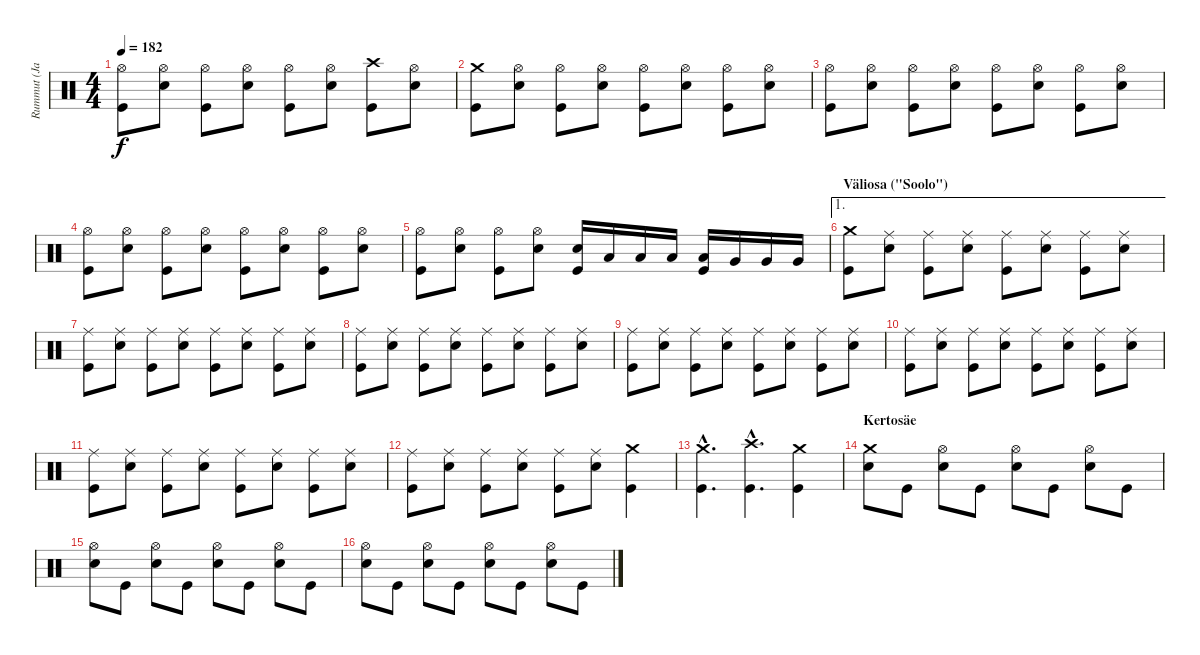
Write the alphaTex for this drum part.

\track ("Rummut (Janne)" "Rummut (Ja") {instrument percussion}
\staff {score}
\articulation defaults
\ts (4 4)
\tempo 182
\clef neutral
\ks c
("Hi-Hat (open)" "Kick (hit)").8{dy f} ("Hi-Hat (open)" "Snare (hit) 2").8 ("Hi-Hat (open)" "Kick (hit)").8 ("Hi-Hat (open)" "Snare (hit) 2").8 ("Hi-Hat (open)" "Kick (hit)").8 ("Hi-Hat (open)" "Snare (hit) 2").8 ("Crash high (hit)" "Kick (hit)").8 ("Hi-Hat (open)" "Snare (hit) 2").8 |
("Crash medium (hit)" "Kick (hit)").8 ("Hi-Hat (open)" "Snare (hit) 2").8 ("Hi-Hat (open)" "Kick (hit)").8 ("Hi-Hat (open)" "Snare (hit) 2").8 ("Hi-Hat (open)" "Kick (hit)").8 ("Hi-Hat (open)" "Snare (hit) 2").8 ("Hi-Hat (open)" "Kick (hit)").8 ("Hi-Hat (open)" "Snare (hit) 2").8 |
("Hi-Hat (open)" "Kick (hit)").8 ("Hi-Hat (open)" "Snare (hit) 2").8 ("Hi-Hat (open)" "Kick (hit)").8 ("Hi-Hat (open)" "Snare (hit) 2").8 ("Hi-Hat (open)" "Kick (hit)").8 ("Hi-Hat (open)" "Snare (hit) 2").8 ("Hi-Hat (open)" "Kick (hit)").8 ("Hi-Hat (open)" "Snare (hit) 2").8 |
("Hi-Hat (open)" "Kick (hit)").8 ("Hi-Hat (open)" "Snare (hit) 2").8 ("Hi-Hat (open)" "Kick (hit)").8 ("Hi-Hat (open)" "Snare (hit) 2").8 ("Hi-Hat (open)" "Kick (hit)").8 ("Hi-Hat (open)" "Snare (hit) 2").8 ("Hi-Hat (open)" "Kick (hit)").8 ("Hi-Hat (open)" "Snare (hit) 2").8 |
("Hi-Hat (open)" "Kick (hit)").8 ("Hi-Hat (open)" "Snare (hit) 2").8 ("Hi-Hat (open)" "Kick (hit)").8 ("Hi-Hat (open)" "Snare (hit) 2").8 ("Snare (hit) 2" "Kick (hit)").16 "Low Tom (hit)".16 "Low Tom (hit)".16 "Low Tom (hit)".16 ("Low Tom (hit)" "Kick (hit)").16 "Very Low Tom (hit)".16 "Very Low Tom (hit)".16 "Very Low Tom (hit)".16 |
\ae 1
\section ("" "Väliosa (\"Soolo\")")
("Crash medium (hit)" "Kick (hit)").8 ("Ride (middle)" "Snare (hit) 2").8 ("Ride (middle)" "Kick (hit)").8 ("Ride (middle)" "Snare (hit) 2").8 ("Ride (middle)" "Kick (hit)").8 ("Ride (middle)" "Snare (hit) 2").8 ("Ride (middle)" "Kick (hit)").8 ("Ride (middle)" "Snare (hit) 2").8 |
("Ride (middle)" "Kick (hit)").8 ("Ride (middle)" "Snare (hit) 2").8 ("Ride (middle)" "Kick (hit)").8 ("Ride (middle)" "Snare (hit) 2").8 ("Ride (middle)" "Kick (hit)").8 ("Ride (middle)" "Snare (hit) 2").8 ("Ride (middle)" "Kick (hit)").8 ("Ride (middle)" "Snare (hit) 2").8 |
("Ride (middle)" "Kick (hit)").8 ("Ride (middle)" "Snare (hit) 2").8 ("Ride (middle)" "Kick (hit)").8 ("Ride (middle)" "Snare (hit) 2").8 ("Ride (middle)" "Kick (hit)").8 ("Ride (middle)" "Snare (hit) 2").8 ("Ride (middle)" "Kick (hit)").8 ("Ride (middle)" "Snare (hit) 2").8 |
("Ride (middle)" "Kick (hit)").8 ("Ride (middle)" "Snare (hit) 2").8 ("Ride (middle)" "Kick (hit)").8 ("Ride (middle)" "Snare (hit) 2").8 ("Ride (middle)" "Kick (hit)").8 ("Ride (middle)" "Snare (hit) 2").8 ("Ride (middle)" "Kick (hit)").8 ("Ride (middle)" "Snare (hit) 2").8 |
("Ride (middle)" "Kick (hit)").8 ("Ride (middle)" "Snare (hit) 2").8 ("Ride (middle)" "Kick (hit)").8 ("Ride (middle)" "Snare (hit) 2").8 ("Ride (middle)" "Kick (hit)").8 ("Ride (middle)" "Snare (hit) 2").8 ("Ride (middle)" "Kick (hit)").8 ("Ride (middle)" "Snare (hit) 2").8 |
("Ride (middle)" "Kick (hit)").8 ("Ride (middle)" "Snare (hit) 2").8 ("Ride (middle)" "Kick (hit)").8 ("Ride (middle)" "Snare (hit) 2").8 ("Ride (middle)" "Kick (hit)").8 ("Ride (middle)" "Snare (hit) 2").8 ("Ride (middle)" "Kick (hit)").8 ("Ride (middle)" "Snare (hit) 2").8 |
("Ride (middle)" "Kick (hit)").8 ("Ride (middle)" "Snare (hit) 2").8 ("Ride (middle)" "Kick (hit)").8 ("Ride (middle)" "Snare (hit) 2").8 ("Ride (middle)" "Kick (hit)").8 ("Ride (middle)" "Snare (hit) 2").8 ("Crash medium (hit)" "Kick (hit)").4 |
("Crash medium (hit)"{hac} "Kick (hit)"{hac}).4{d} ("Crash high (hit)"{hac} "Kick (hit)"{hac}).4{d} ("Crash medium (hit)" "Kick (hit)").4 |
\section ("" "Kertosäe")
("Crash medium (hit)" "Snare (hit) 2").8 "Kick (hit)".8 ("Hi-Hat (open)" "Snare (hit) 2").8 "Kick (hit)".8 ("Hi-Hat (open)" "Snare (hit) 2").8 "Kick (hit)".8 ("Hi-Hat (open)" "Snare (hit) 2").8 "Kick (hit)".8 |
("Hi-Hat (open)" "Snare (hit) 2").8 "Kick (hit)".8 ("Hi-Hat (open)" "Snare (hit) 2").8 "Kick (hit)".8 ("Hi-Hat (open)" "Snare (hit) 2").8 "Kick (hit)".8 ("Hi-Hat (open)" "Snare (hit) 2").8 "Kick (hit)".8 |
("Hi-Hat (open)" "Snare (hit) 2").8 "Kick (hit)".8 ("Hi-Hat (open)" "Snare (hit) 2").8 "Kick (hit)".8 ("Hi-Hat (open)" "Snare (hit) 2").8 "Kick (hit)".8 ("Hi-Hat (open)" "Snare (hit) 2").8 "Kick (hit)".8
